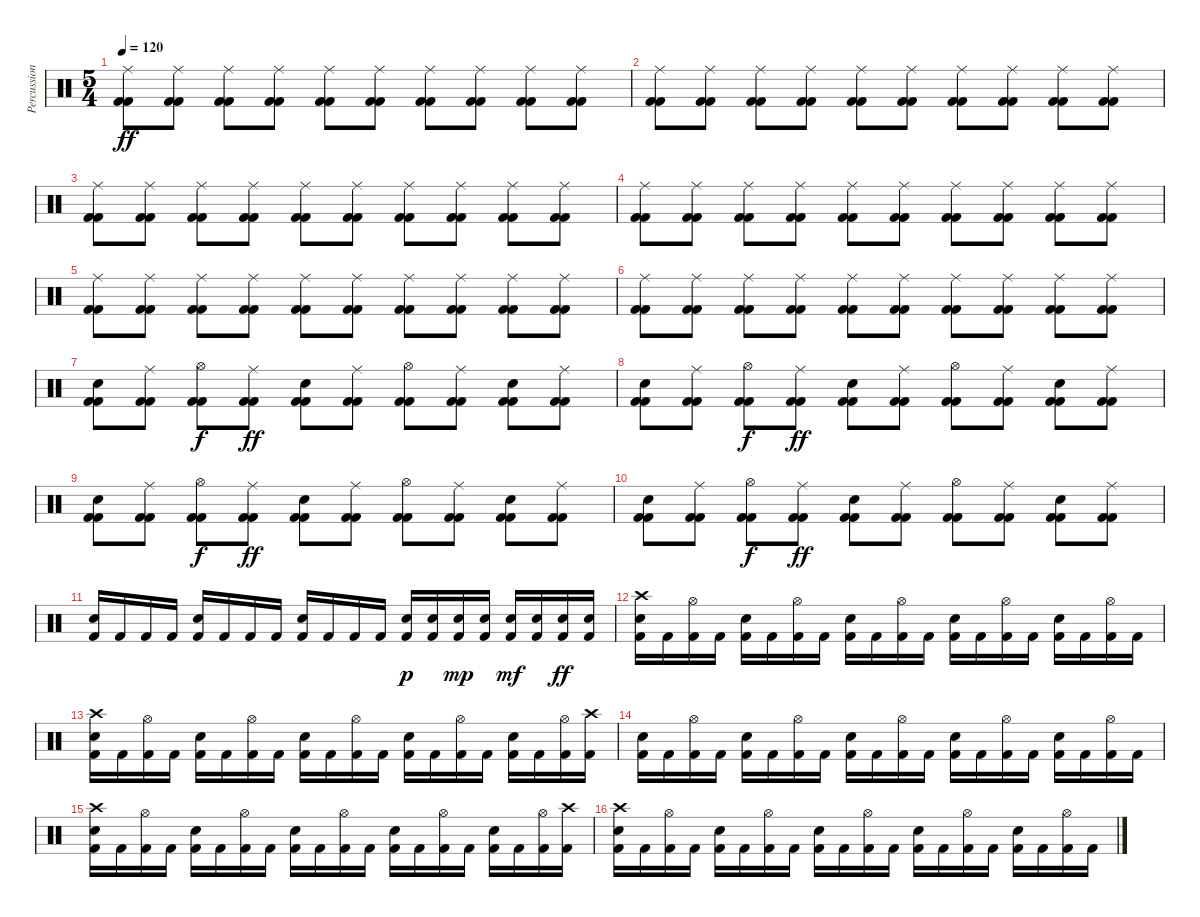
\track ("Percussioni" "Percussion") {instrument percussion}
\staff {score}
\articulation defaults
\ts (5 4)
\tempo 120
\clef neutral
\ks c
("Kick (hit) 2" "Kick (hit) 2" "Ride (middle)").8{dy ff} ("Kick (hit) 2" "Kick (hit) 2" "Ride (middle)").8 ("Kick (hit) 2" "Kick (hit) 2" "Ride (middle)").8 ("Kick (hit) 2" "Kick (hit) 2" "Ride (middle)").8 ("Kick (hit) 2" "Kick (hit) 2" "Ride (middle)").8 ("Kick (hit) 2" "Kick (hit) 2" "Ride (middle)").8 ("Kick (hit) 2" "Kick (hit) 2" "Ride (middle)").8 ("Kick (hit) 2" "Kick (hit) 2" "Ride (middle)").8 ("Kick (hit) 2" "Kick (hit) 2" "Ride (middle)").8 ("Kick (hit) 2" "Kick (hit) 2" "Ride (middle)").8 |
("Kick (hit) 2" "Kick (hit) 2" "Ride (middle)").8 ("Kick (hit) 2" "Kick (hit) 2" "Ride (middle)").8 ("Kick (hit) 2" "Kick (hit) 2" "Ride (middle)").8 ("Kick (hit) 2" "Kick (hit) 2" "Ride (middle)").8 ("Kick (hit) 2" "Kick (hit) 2" "Ride (middle)").8 ("Kick (hit) 2" "Kick (hit) 2" "Ride (middle)").8 ("Kick (hit) 2" "Kick (hit) 2" "Ride (middle)").8 ("Kick (hit) 2" "Kick (hit) 2" "Ride (middle)").8 ("Kick (hit) 2" "Kick (hit) 2" "Ride (middle)").8 ("Kick (hit) 2" "Kick (hit) 2" "Ride (middle)").8 |
("Kick (hit) 2" "Kick (hit) 2" "Ride (middle)").8 ("Kick (hit) 2" "Kick (hit) 2" "Ride (middle)").8 ("Kick (hit) 2" "Kick (hit) 2" "Ride (middle)").8 ("Kick (hit) 2" "Kick (hit) 2" "Ride (middle)").8 ("Kick (hit) 2" "Kick (hit) 2" "Ride (middle)").8 ("Kick (hit) 2" "Kick (hit) 2" "Ride (middle)").8 ("Kick (hit) 2" "Kick (hit) 2" "Ride (middle)").8 ("Kick (hit) 2" "Kick (hit) 2" "Ride (middle)").8 ("Kick (hit) 2" "Kick (hit) 2" "Ride (middle)").8 ("Kick (hit) 2" "Kick (hit) 2" "Ride (middle)").8 |
("Kick (hit) 2" "Kick (hit) 2" "Ride (middle)").8 ("Kick (hit) 2" "Kick (hit) 2" "Ride (middle)").8 ("Kick (hit) 2" "Kick (hit) 2" "Ride (middle)").8 ("Kick (hit) 2" "Kick (hit) 2" "Ride (middle)").8 ("Kick (hit) 2" "Kick (hit) 2" "Ride (middle)").8 ("Kick (hit) 2" "Kick (hit) 2" "Ride (middle)").8 ("Kick (hit) 2" "Kick (hit) 2" "Ride (middle)").8 ("Kick (hit) 2" "Kick (hit) 2" "Ride (middle)").8 ("Kick (hit) 2" "Kick (hit) 2" "Ride (middle)").8 ("Kick (hit) 2" "Kick (hit) 2" "Ride (middle)").8 |
("Kick (hit) 2" "Kick (hit) 2" "Ride (middle)").8 ("Kick (hit) 2" "Kick (hit) 2" "Ride (middle)").8 ("Kick (hit) 2" "Kick (hit) 2" "Ride (middle)").8 ("Kick (hit) 2" "Kick (hit) 2" "Ride (middle)").8 ("Kick (hit) 2" "Kick (hit) 2" "Ride (middle)").8 ("Kick (hit) 2" "Kick (hit) 2" "Ride (middle)").8 ("Kick (hit) 2" "Kick (hit) 2" "Ride (middle)").8 ("Kick (hit) 2" "Kick (hit) 2" "Ride (middle)").8 ("Kick (hit) 2" "Kick (hit) 2" "Ride (middle)").8 ("Kick (hit) 2" "Kick (hit) 2" "Ride (middle)").8 |
("Kick (hit) 2" "Kick (hit) 2" "Ride (middle)").8 ("Kick (hit) 2" "Kick (hit) 2" "Ride (middle)").8 ("Kick (hit) 2" "Kick (hit) 2" "Ride (middle)").8 ("Kick (hit) 2" "Kick (hit) 2" "Ride (middle)").8 ("Kick (hit) 2" "Kick (hit) 2" "Ride (middle)").8 ("Kick (hit) 2" "Kick (hit) 2" "Ride (middle)").8 ("Kick (hit) 2" "Kick (hit) 2" "Ride (middle)").8 ("Kick (hit) 2" "Kick (hit) 2" "Ride (middle)").8 ("Kick (hit) 2" "Kick (hit) 2" "Ride (middle)").8 ("Kick (hit) 2" "Kick (hit) 2" "Ride (middle)").8 |
("Kick (hit) 2" "Kick (hit) 2" "Electric Snare (hit)").8 ("Kick (hit) 2" "Kick (hit) 2" "Ride (middle)").8 ("Kick (hit) 2" "Kick (hit) 2" "Hi-Hat (open)").8{dy f} ("Kick (hit) 2" "Kick (hit) 2" "Ride (middle)").8{dy ff} ("Kick (hit) 2" "Kick (hit) 2" "Electric Snare (hit)").8 ("Kick (hit) 2" "Kick (hit) 2" "Ride (middle)").8 ("Kick (hit) 2" "Kick (hit) 2" "Hi-Hat (open)").8 ("Kick (hit) 2" "Kick (hit) 2" "Ride (middle)").8 ("Kick (hit) 2" "Kick (hit) 2" "Electric Snare (hit)").8 ("Kick (hit) 2" "Kick (hit) 2" "Ride (middle)").8 |
("Kick (hit) 2" "Kick (hit) 2" "Electric Snare (hit)").8 ("Kick (hit) 2" "Kick (hit) 2" "Ride (middle)").8 ("Kick (hit) 2" "Kick (hit) 2" "Hi-Hat (open)").8{dy f} ("Kick (hit) 2" "Kick (hit) 2" "Ride (middle)").8{dy ff} ("Kick (hit) 2" "Kick (hit) 2" "Electric Snare (hit)").8 ("Kick (hit) 2" "Kick (hit) 2" "Ride (middle)").8 ("Kick (hit) 2" "Kick (hit) 2" "Hi-Hat (open)").8 ("Kick (hit) 2" "Kick (hit) 2" "Ride (middle)").8 ("Kick (hit) 2" "Kick (hit) 2" "Electric Snare (hit)").8 ("Kick (hit) 2" "Kick (hit) 2" "Ride (middle)").8 |
("Kick (hit) 2" "Kick (hit) 2" "Electric Snare (hit)").8 ("Kick (hit) 2" "Kick (hit) 2" "Ride (middle)").8 ("Kick (hit) 2" "Kick (hit) 2" "Hi-Hat (open)").8{dy f} ("Kick (hit) 2" "Kick (hit) 2" "Ride (middle)").8{dy ff} ("Kick (hit) 2" "Kick (hit) 2" "Electric Snare (hit)").8 ("Kick (hit) 2" "Kick (hit) 2" "Ride (middle)").8 ("Kick (hit) 2" "Kick (hit) 2" "Hi-Hat (open)").8 ("Kick (hit) 2" "Kick (hit) 2" "Ride (middle)").8 ("Kick (hit) 2" "Kick (hit) 2" "Electric Snare (hit)").8 ("Kick (hit) 2" "Kick (hit) 2" "Ride (middle)").8 |
("Kick (hit) 2" "Kick (hit) 2" "Electric Snare (hit)").8 ("Kick (hit) 2" "Kick (hit) 2" "Ride (middle)").8 ("Kick (hit) 2" "Kick (hit) 2" "Hi-Hat (open)").8{dy f} ("Kick (hit) 2" "Kick (hit) 2" "Ride (middle)").8{dy ff} ("Kick (hit) 2" "Kick (hit) 2" "Electric Snare (hit)").8 ("Kick (hit) 2" "Kick (hit) 2" "Ride (middle)").8 ("Kick (hit) 2" "Kick (hit) 2" "Hi-Hat (open)").8 ("Kick (hit) 2" "Kick (hit) 2" "Ride (middle)").8 ("Kick (hit) 2" "Kick (hit) 2" "Electric Snare (hit)").8 ("Kick (hit) 2" "Kick (hit) 2" "Ride (middle)").8 |
("Kick (hit) 2" "Electric Snare (hit)").16 "Kick (hit) 2".16 "Kick (hit) 2".16 "Kick (hit) 2".16 ("Kick (hit) 2" "Electric Snare (hit)").16 "Kick (hit) 2".16 "Kick (hit) 2".16 "Kick (hit) 2".16 ("Kick (hit) 2" "Electric Snare (hit)").16 "Kick (hit) 2".16 "Kick (hit) 2".16 "Kick (hit) 2".16 ("Kick (hit) 2" "Electric Snare (hit)").16{dy p} ("Kick (hit) 2" "Electric Snare (hit)").16 ("Kick (hit) 2" "Electric Snare (hit)").16{dy mp} ("Kick (hit) 2" "Electric Snare (hit)").16 ("Kick (hit) 2" "Electric Snare (hit)").16{dy mf} ("Kick (hit) 2" "Electric Snare (hit)").16 ("Kick (hit) 2" "Electric Snare (hit)").16{dy ff} ("Kick (hit) 2" "Electric Snare (hit)").16 |
("Kick (hit) 2" "Crash high (hit)" "Electric Snare (hit)").16 "Kick (hit) 2".16 ("Kick (hit) 2" "Hi-Hat (open)").16 "Kick (hit) 2".16 ("Kick (hit) 2" "Electric Snare (hit)").16 "Kick (hit) 2".16 ("Kick (hit) 2" "Hi-Hat (open)").16 "Kick (hit) 2".16 ("Kick (hit) 2" "Electric Snare (hit)").16 "Kick (hit) 2".16 ("Kick (hit) 2" "Hi-Hat (open)").16 "Kick (hit) 2".16 ("Kick (hit) 2" "Electric Snare (hit)").16 "Kick (hit) 2".16 ("Kick (hit) 2" "Hi-Hat (open)").16 "Kick (hit) 2".16 ("Kick (hit) 2" "Electric Snare (hit)").16 "Kick (hit) 2".16 ("Kick (hit) 2" "Hi-Hat (open)").16 "Kick (hit) 2".16 |
("Kick (hit) 2" "Crash high (hit)" "Electric Snare (hit)").16 "Kick (hit) 2".16 ("Kick (hit) 2" "Hi-Hat (open)").16 "Kick (hit) 2".16 ("Kick (hit) 2" "Electric Snare (hit)").16 "Kick (hit) 2".16 ("Kick (hit) 2" "Hi-Hat (open)").16 "Kick (hit) 2".16 ("Kick (hit) 2" "Electric Snare (hit)").16 "Kick (hit) 2".16 ("Kick (hit) 2" "Hi-Hat (open)").16 "Kick (hit) 2".16 ("Kick (hit) 2" "Electric Snare (hit)").16 "Kick (hit) 2".16 ("Kick (hit) 2" "Hi-Hat (open)").16 "Kick (hit) 2".16 ("Kick (hit) 2" "Electric Snare (hit)").16 "Kick (hit) 2".16 ("Kick (hit) 2" "Hi-Hat (open)").16 ("Kick (hit) 2" "Crash high (hit)").16 |
("Kick (hit) 2" "Electric Snare (hit)").16 "Kick (hit) 2".16 ("Kick (hit) 2" "Hi-Hat (open)").16 "Kick (hit) 2".16 ("Kick (hit) 2" "Electric Snare (hit)").16 "Kick (hit) 2".16 ("Kick (hit) 2" "Hi-Hat (open)").16 "Kick (hit) 2".16 ("Kick (hit) 2" "Electric Snare (hit)").16 "Kick (hit) 2".16 ("Kick (hit) 2" "Hi-Hat (open)").16 "Kick (hit) 2".16 ("Kick (hit) 2" "Electric Snare (hit)").16 "Kick (hit) 2".16 ("Kick (hit) 2" "Hi-Hat (open)").16 "Kick (hit) 2".16 ("Kick (hit) 2" "Electric Snare (hit)").16 "Kick (hit) 2".16 ("Kick (hit) 2" "Hi-Hat (open)").16 "Kick (hit) 2".16 |
("Kick (hit) 2" "Crash high (hit)" "Electric Snare (hit)").16 "Kick (hit) 2".16 ("Kick (hit) 2" "Hi-Hat (open)").16 "Kick (hit) 2".16 ("Kick (hit) 2" "Electric Snare (hit)").16 "Kick (hit) 2".16 ("Kick (hit) 2" "Hi-Hat (open)").16 "Kick (hit) 2".16 ("Kick (hit) 2" "Electric Snare (hit)").16 "Kick (hit) 2".16 ("Kick (hit) 2" "Hi-Hat (open)").16 "Kick (hit) 2".16 ("Kick (hit) 2" "Electric Snare (hit)").16 "Kick (hit) 2".16 ("Kick (hit) 2" "Hi-Hat (open)").16 "Kick (hit) 2".16 ("Kick (hit) 2" "Electric Snare (hit)").16 "Kick (hit) 2".16 ("Kick (hit) 2" "Hi-Hat (open)").16 ("Kick (hit) 2" "Crash high (hit)").16 |
("Kick (hit) 2" "Crash high (hit)" "Electric Snare (hit)").16 "Kick (hit) 2".16 ("Kick (hit) 2" "Hi-Hat (open)").16 "Kick (hit) 2".16 ("Kick (hit) 2" "Electric Snare (hit)").16 "Kick (hit) 2".16 ("Kick (hit) 2" "Hi-Hat (open)").16 "Kick (hit) 2".16 ("Kick (hit) 2" "Electric Snare (hit)").16 "Kick (hit) 2".16 ("Kick (hit) 2" "Hi-Hat (open)").16 "Kick (hit) 2".16 ("Kick (hit) 2" "Electric Snare (hit)").16 "Kick (hit) 2".16 ("Kick (hit) 2" "Hi-Hat (open)").16 "Kick (hit) 2".16 ("Kick (hit) 2" "Electric Snare (hit)").16 "Kick (hit) 2".16 ("Kick (hit) 2" "Hi-Hat (open)").16 "Kick (hit) 2".16
